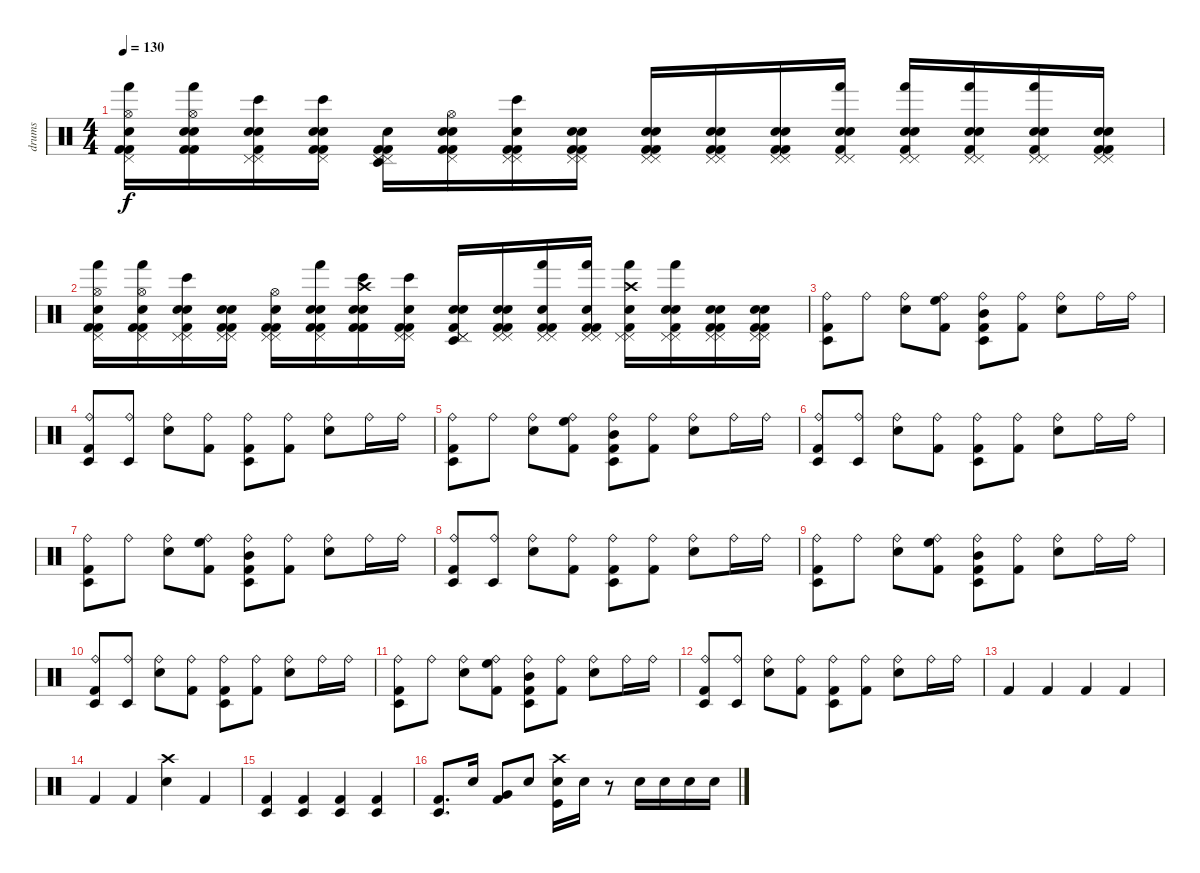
\track ("drums" "drums") {instrument percussion}
\staff {score}
\articulation defaults
\ts (4 4)
\tempo 130
\clef neutral
\ks c
("Kick (hit) 2" "Hi-Hat (open)" "Hand (hit)" "Hand Clap (hit)" "Pedal Hi-Hat (hit)" "Kick (hit) 2").16{dy f} ("Hand Clap (hit)" "Kick (hit) 2" "Hand Clap (hit)" "Hi-Hat (open)" "Hand (hit)" "Kick (hit) 2").16 ("Kick (hit) 2" "Pedal Hi-Hat (hit)" "Pedal Hi-Hat (hit)" "Bongo High (hit)" "Hand Clap (hit)" "Hand Clap (hit)").16 ("Bongo High (hit)" "Kick (hit) 2" "Hand Clap (hit)" "Hand Clap (hit)" "Pedal Hi-Hat (hit)" "Kick (hit) 2").16 ("Kick (hit) 2" "Pedal Hi-Hat (hit)" "Kick (hit) 2" "Hand Clap (hit)" "Pedal Hi-Hat (hit)" "Timbale low (hit)").16 ("Pedal Hi-Hat (hit)" "Hi-Hat (open)" "Hand Clap (hit)" "Hand Clap (hit)" "Kick (hit) 2" "Kick (hit) 2").16 ("Kick (hit) 2" "Kick (hit) 2" "Pedal Hi-Hat (hit)" "Hand Clap (hit)" "Bongo High (hit)" "Pedal Hi-Hat (hit)").16 ("Hand Clap (hit)" "Pedal Hi-Hat (hit)" "Hand Clap (hit)" "Pedal Hi-Hat (hit)" "Kick (hit) 2" "Kick (hit) 2").16 ("Hand Clap (hit)" "Kick (hit) 2" "Pedal Hi-Hat (hit)" "Pedal Hi-Hat (hit)" "Kick (hit) 2" "Hand Clap (hit)").16 ("Pedal Hi-Hat (hit)" "Kick (hit) 2" "Hand Clap (hit)" "Pedal Hi-Hat (hit)" "Hand Clap (hit)" "Kick (hit) 2").16 ("Kick (hit) 2" "Kick (hit) 2" "Hand Clap (hit)" "Pedal Hi-Hat (hit)" "Pedal Hi-Hat (hit)" "Hand Clap (hit)").16 ("Hand (hit)" "Pedal Hi-Hat (hit)" "Pedal Hi-Hat (hit)" "Kick (hit) 2" "Hand Clap (hit)" "Hand Clap (hit)").16 ("Hand (hit)" "Pedal Hi-Hat (hit)" "Kick (hit) 2" "Hand Clap (hit)" "Hand Clap (hit)" "Pedal Hi-Hat (hit)").16 ("Pedal Hi-Hat (hit)" "Hand (hit)" "Kick (hit) 2" "Hand Clap (hit)" "Pedal Hi-Hat (hit)" "Hand Clap (hit)").16 ("Kick (hit) 2" "Pedal Hi-Hat (hit)" "Pedal Hi-Hat (hit)" "Hand Clap (hit)" "Hand (hit)" "Hand Clap (hit)").16 ("Hand Clap (hit)" "Hand Clap (hit)" "Kick (hit) 2" "Kick (hit) 2" "Pedal Hi-Hat (hit)" "Pedal Hi-Hat (hit)").16 |
("Kick (hit) 2" "Hi-Hat (open)" "Kick (hit) 2" "Pedal Hi-Hat (hit)" "Hand (hit)" "Hand Clap (hit)").16 ("Kick (hit) 2" "Kick (hit) 2" "Hi-Hat (open)" "Hand (hit)" "Hand Clap (hit)" "Pedal Hi-Hat (hit)").16 ("Hand Clap (hit)" "Bongo High (hit)" "Pedal Hi-Hat (hit)" "Pedal Hi-Hat (hit)" "Kick (hit) 2" "Hand Clap (hit)").16 ("Hand Clap (hit)" "Kick (hit) 2" "Pedal Hi-Hat (hit)" "Kick (hit) 2" "Hand Clap (hit)" "Pedal Hi-Hat (hit)").16 ("Hi-Hat (open)" "Kick (hit) 2" "Pedal Hi-Hat (hit)" "Pedal Hi-Hat (hit)" "Kick (hit) 2" "Hand Clap (hit)").16 ("Hand Clap (hit)" "Hand (hit)" "Pedal Hi-Hat (hit)" "Kick (hit) 2" "Hand Clap (hit)" "Kick (hit) 2").16 ("Hand Clap (hit)" "Crash high (hit)" "Kick (hit) 2" "Hand Clap (hit)" "Bongo High (hit)" "Kick (hit) 2").16 ("Kick (hit) 2" "Kick (hit) 2" "Pedal Hi-Hat (hit)" "Hand Clap (hit)" "Pedal Hi-Hat (hit)" "Bongo High (hit)").16 ("Hand Clap (hit)" "Pedal Hi-Hat (hit)" "Kick (hit) 2" "Hand Clap (hit)" "Timbale low (hit)" "Pedal Hi-Hat (hit)").16 ("Kick (hit) 2" "Pedal Hi-Hat (hit)" "Hand Clap (hit)" "Kick (hit) 2" "Pedal Hi-Hat (hit)" "Hand Clap (hit)").16 ("Pedal Hi-Hat (hit)" "Hand (hit)" "Pedal Hi-Hat (hit)" "Kick (hit) 2" "Kick (hit) 2" "Hand Clap (hit)").16 ("Kick (hit) 2" "Hand (hit)" "Hand Clap (hit)" "Pedal Hi-Hat (hit)" "Pedal Hi-Hat (hit)" "Kick (hit) 2").16 ("Kick (hit) 2" "Hand Clap (hit)" "Pedal Hi-Hat (hit)" "Pedal Hi-Hat (hit)" "Hand (hit)" "Crash high (hit)").16 ("Pedal Hi-Hat (hit)" "Hand Clap (hit)" "Hand Clap (hit)" "Hand (hit)" "Pedal Hi-Hat (hit)" "Kick (hit) 2").16 ("Hand Clap (hit)" "Pedal Hi-Hat (hit)" "Kick (hit) 2" "Kick (hit) 2" "Pedal Hi-Hat (hit)" "Hand Clap (hit)").16 ("Kick (hit) 2" "Kick (hit) 2" "Hand Clap (hit)" "Pedal Hi-Hat (hit)" "Pedal Hi-Hat (hit)" "Hand Clap (hit)").16 |
("Timbale low (hit)" "Kick (hit) 2" "Ride (bell)").8 "Ride (bell)".8 ("Ride (bell)" "Electric Snare (hit)").8 ("Kick (hit) 2" "High Floor Tom (hit)" "Ride (bell)").8 ("Kick (hit) 2" "Timbale low (hit)" "Mid Tom (hit)" "Ride (bell)").8 ("Ride (bell)" "Kick (hit) 2").8 ("Ride (bell)" "Electric Snare (hit)").8 "Ride (bell)".16 "Ride (bell)".16 |
("Timbale low (hit)" "Ride (bell)" "Kick (hit) 2").8 ("Timbale low (hit)" "Ride (bell)").8 ("Ride (bell)" "Electric Snare (hit)").8 ("Ride (bell)" "Kick (hit) 2").8 ("Timbale low (hit)" "Ride (bell)" "Kick (hit) 2").8 ("Ride (bell)" "Kick (hit) 2").8 ("Ride (bell)" "Electric Snare (hit)").8 "Ride (bell)".16 "Ride (bell)".16 |
("Kick (hit) 2" "Timbale low (hit)" "Ride (bell)").8 "Ride (bell)".8 ("Ride (bell)" "Electric Snare (hit)").8 ("High Floor Tom (hit)" "Kick (hit) 2" "Ride (bell)").8 ("Kick (hit) 2" "Timbale low (hit)" "Mid Tom (hit)" "Ride (bell)").8 ("Kick (hit) 2" "Ride (bell)").8 ("Ride (bell)" "Electric Snare (hit)").8 "Ride (bell)".16 "Ride (bell)".16 |
("Timbale low (hit)" "Kick (hit) 2" "Ride (bell)").8 ("Timbale low (hit)" "Ride (bell)").8 ("Electric Snare (hit)" "Ride (bell)").8 ("Kick (hit) 2" "Ride (bell)").8 ("Kick (hit) 2" "Ride (bell)" "Timbale low (hit)").8 ("Kick (hit) 2" "Ride (bell)").8 ("Electric Snare (hit)" "Ride (bell)").8 "Ride (bell)".16 "Ride (bell)".16 |
("Timbale low (hit)" "Ride (bell)" "Kick (hit) 2").8 "Ride (bell)".8 ("Ride (bell)" "Electric Snare (hit)").8 ("Ride (bell)" "Kick (hit) 2" "High Floor Tom (hit)").8 ("Mid Tom (hit)" "Ride (bell)" "Timbale low (hit)" "Kick (hit) 2").8 ("Kick (hit) 2" "Ride (bell)").8 ("Ride (bell)" "Electric Snare (hit)").8 "Ride (bell)".16 "Ride (bell)".16 |
("Timbale low (hit)" "Ride (bell)" "Kick (hit) 2").8 ("Timbale low (hit)" "Ride (bell)").8 ("Ride (bell)" "Electric Snare (hit)").8 ("Kick (hit) 2" "Ride (bell)").8 ("Timbale low (hit)" "Kick (hit) 2" "Ride (bell)").8 ("Kick (hit) 2" "Ride (bell)").8 ("Electric Snare (hit)" "Ride (bell)").8 "Ride (bell)".16 "Ride (bell)".16 |
("Ride (bell)" "Kick (hit) 2" "Timbale low (hit)").8 "Ride (bell)".8 ("Electric Snare (hit)" "Ride (bell)").8 ("Ride (bell)" "Kick (hit) 2" "High Floor Tom (hit)").8 ("Timbale low (hit)" "Kick (hit) 2" "Ride (bell)" "Mid Tom (hit)").8 ("Kick (hit) 2" "Ride (bell)").8 ("Ride (bell)" "Electric Snare (hit)").8 "Ride (bell)".16 "Ride (bell)".16 |
("Ride (bell)" "Kick (hit) 2" "Timbale low (hit)").8 ("Timbale low (hit)" "Ride (bell)").8 ("Ride (bell)" "Electric Snare (hit)").8 ("Kick (hit) 2" "Ride (bell)").8 ("Kick (hit) 2" "Timbale low (hit)" "Ride (bell)").8 ("Ride (bell)" "Kick (hit) 2").8 ("Ride (bell)" "Electric Snare (hit)").8 "Ride (bell)".16 "Ride (bell)".16 |
("Timbale low (hit)" "Kick (hit) 2" "Ride (bell)").8 "Ride (bell)".8 ("Electric Snare (hit)" "Ride (bell)").8 ("High Floor Tom (hit)" "Ride (bell)" "Kick (hit) 2").8 ("Mid Tom (hit)" "Kick (hit) 2" "Timbale low (hit)" "Ride (bell)").8 ("Ride (bell)" "Kick (hit) 2").8 ("Ride (bell)" "Electric Snare (hit)").8 "Ride (bell)".16 "Ride (bell)".16 |
("Kick (hit) 2" "Timbale low (hit)" "Ride (bell)").8 ("Timbale low (hit)" "Ride (bell)").8 ("Electric Snare (hit)" "Ride (bell)").8 ("Ride (bell)" "Kick (hit) 2").8 ("Kick (hit) 2" "Timbale low (hit)" "Ride (bell)").8 ("Kick (hit) 2" "Ride (bell)").8 ("Electric Snare (hit)" "Ride (bell)").8 "Ride (bell)".16 "Ride (bell)".16 |
"Kick (hit) 2".4 "Kick (hit) 2".4 "Kick (hit) 2".4 "Kick (hit) 2".4 |
"Kick (hit) 2".4 "Kick (hit) 2".4 ("Electric Snare (hit)" "Crash high (hit)").4 "Kick (hit) 2".4 |
("Timbale low (hit)" "Kick (hit) 2").4 ("Kick (hit) 2" "Timbale low (hit)").4 ("Kick (hit) 2" "Timbale low (hit)").4 ("Timbale low (hit)" "Kick (hit) 2").4 |
("Timbale low (hit)" "Kick (hit) 2").8{d} "Electric Snare (hit)".16 ("Very Low Tom (hit)" "Kick (hit) 2").8 "Electric Snare (hit)".8 ("Kick (hit)" "Crash high (hit)" "Electric Snare (hit)").16 "Electric Snare (hit)".16 r.8 "Electric Snare (hit)".16 "Electric Snare (hit)".16 "Electric Snare (hit)".16 "Electric Snare (hit)".16
